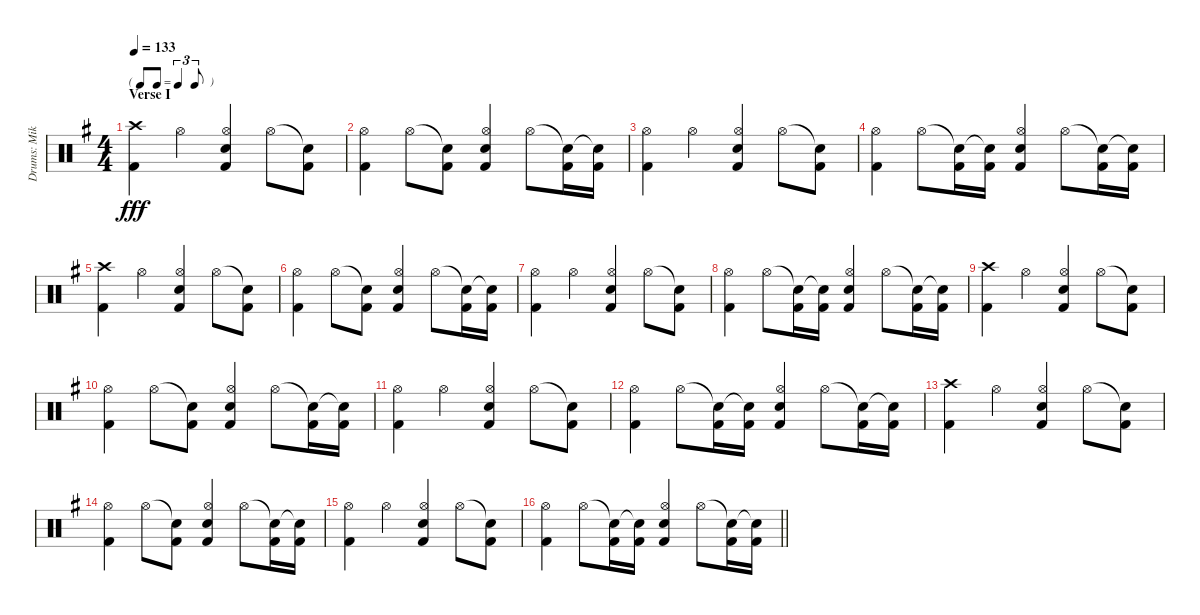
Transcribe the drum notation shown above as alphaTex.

\track ("Drums: Mike" "Drums: Mik") {instrument percussion}
\staff {score}
\articulation defaults
\ts (4 4)
\tf triplet8th
\section ("" "Verse I")
\tempo 133
\clef neutral
\ks g
("Crash high (hit)" "Kick (hit) 2").4{dy fff} "Hi-Hat (open)".4 ("Hi-Hat (open)" "Electric Snare (hit)" "Kick (hit) 2").4 "Hi-Hat (open)".8 ("Snare (hit)"{t} "Kick (hit) 2").8 |
("Hi-Hat (open)" "Kick (hit) 2").4 "Hi-Hat (open)".8 ("Snare (hit)"{t} "Kick (hit) 2").8 ("Hi-Hat (open)" "Electric Snare (hit)" "Kick (hit) 2").4 "Hi-Hat (open)".8 ("Snare (hit)"{t} "Kick (hit) 2").16 ("Snare (hit)"{t} "Kick (hit) 2").16 |
("Hi-Hat (open)" "Kick (hit) 2").4 "Hi-Hat (open)".4 ("Hi-Hat (open)" "Electric Snare (hit)" "Kick (hit) 2").4 "Hi-Hat (open)".8 ("Snare (hit)"{t} "Kick (hit) 2").8 |
("Hi-Hat (open)" "Kick (hit) 2").4 "Hi-Hat (open)".8 ("Snare (hit)"{t} "Kick (hit) 2").16 ("Snare (hit)"{t} "Kick (hit) 2").16 ("Hi-Hat (open)" "Electric Snare (hit)" "Kick (hit) 2").4 "Hi-Hat (open)".8 ("Snare (hit)"{t} "Kick (hit) 2").16 ("Snare (hit)"{t} "Kick (hit) 2").16 |
("Crash high (hit)" "Kick (hit) 2").4 "Hi-Hat (open)".4 ("Hi-Hat (open)" "Electric Snare (hit)" "Kick (hit) 2").4 "Hi-Hat (open)".8 ("Snare (hit)"{t} "Kick (hit) 2").8 |
("Hi-Hat (open)" "Kick (hit) 2").4 "Hi-Hat (open)".8 ("Snare (hit)"{t} "Kick (hit) 2").8 ("Hi-Hat (open)" "Electric Snare (hit)" "Kick (hit) 2").4 "Hi-Hat (open)".8 ("Snare (hit)"{t} "Kick (hit) 2").16 ("Snare (hit)"{t} "Kick (hit) 2").16 |
("Hi-Hat (open)" "Kick (hit) 2").4 "Hi-Hat (open)".4 ("Hi-Hat (open)" "Electric Snare (hit)" "Kick (hit) 2").4 "Hi-Hat (open)".8 ("Snare (hit)"{t} "Kick (hit) 2").8 |
("Hi-Hat (open)" "Kick (hit) 2").4 "Hi-Hat (open)".8 ("Snare (hit)"{t} "Kick (hit) 2").16 ("Snare (hit)"{t} "Kick (hit) 2").16 ("Hi-Hat (open)" "Electric Snare (hit)" "Kick (hit) 2").4 "Hi-Hat (open)".8 ("Snare (hit)"{t} "Kick (hit) 2").16 ("Snare (hit)"{t} "Kick (hit) 2").16 |
("Crash high (hit)" "Kick (hit) 2").4 "Hi-Hat (open)".4 ("Hi-Hat (open)" "Electric Snare (hit)" "Kick (hit) 2").4 "Hi-Hat (open)".8 ("Snare (hit)"{t} "Kick (hit) 2").8 |
("Hi-Hat (open)" "Kick (hit) 2").4 "Hi-Hat (open)".8 ("Snare (hit)"{t} "Kick (hit) 2").8 ("Hi-Hat (open)" "Electric Snare (hit)" "Kick (hit) 2").4 "Hi-Hat (open)".8 ("Snare (hit)"{t} "Kick (hit) 2").16 ("Snare (hit)"{t} "Kick (hit) 2").16 |
("Hi-Hat (open)" "Kick (hit) 2").4 "Hi-Hat (open)".4 ("Hi-Hat (open)" "Electric Snare (hit)" "Kick (hit) 2").4 "Hi-Hat (open)".8 ("Snare (hit)"{t} "Kick (hit) 2").8 |
("Hi-Hat (open)" "Kick (hit) 2").4 "Hi-Hat (open)".8 ("Snare (hit)"{t} "Kick (hit) 2").16 ("Snare (hit)"{t} "Kick (hit) 2").16 ("Hi-Hat (open)" "Electric Snare (hit)" "Kick (hit) 2").4 "Hi-Hat (open)".8 ("Snare (hit)"{t} "Kick (hit) 2").16 ("Snare (hit)"{t} "Kick (hit) 2").16 |
("Crash high (hit)" "Kick (hit) 2").4 "Hi-Hat (open)".4 ("Hi-Hat (open)" "Electric Snare (hit)" "Kick (hit) 2").4 "Hi-Hat (open)".8 ("Snare (hit)"{t} "Kick (hit) 2").8 |
("Hi-Hat (open)" "Kick (hit) 2").4 "Hi-Hat (open)".8 ("Snare (hit)"{t} "Kick (hit) 2").8 ("Hi-Hat (open)" "Electric Snare (hit)" "Kick (hit) 2").4 "Hi-Hat (open)".8 ("Snare (hit)"{t} "Kick (hit) 2").16 ("Snare (hit)"{t} "Kick (hit) 2").16 |
("Hi-Hat (open)" "Kick (hit) 2").4 "Hi-Hat (open)".4 ("Hi-Hat (open)" "Electric Snare (hit)" "Kick (hit) 2").4 "Hi-Hat (open)".8 ("Snare (hit)"{t} "Kick (hit) 2").8 |
\barLineRight lightlight
("Hi-Hat (open)" "Kick (hit) 2").4 "Hi-Hat (open)".8 ("Snare (hit)"{t} "Kick (hit) 2").16 ("Snare (hit)"{t} "Kick (hit) 2").16 ("Hi-Hat (open)" "Electric Snare (hit)" "Kick (hit) 2").4 "Hi-Hat (open)".8 ("Snare (hit)"{t} "Kick (hit) 2").16 ("Snare (hit)"{t} "Kick (hit) 2").16
